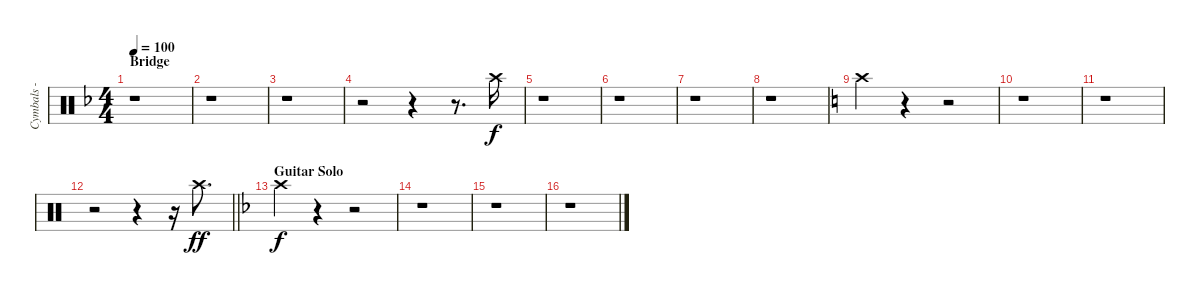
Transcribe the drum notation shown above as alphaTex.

\track ("Cymbals - crash" "Cymbals - ") {instrument percussion}
\staff {score}
\articulation defaults
\ts (4 4)
\section ("" "Bridge")
\tempo 100
\clef neutral
\ks dminor
r.1{dy f} |
r.1 |
r.1 |
r.2 r.4 r.8{d} "Crash high (hit)".16 |
r.1 |
r.1 |
r.1 |
r.1 |
\ks aminor "Crash high (hit)".4
r.4 r.2 |
r.1 |
r.1 |
\barLineRight lightlight
r.2 r.4 r.16 "Crash high (hit)".8{d dy ff} |
\section ("" "Guitar Solo")
\ks dminor "Crash high (hit)".4{dy f}
r.4 r.2 |
r.1 |
r.1 |
r.1
